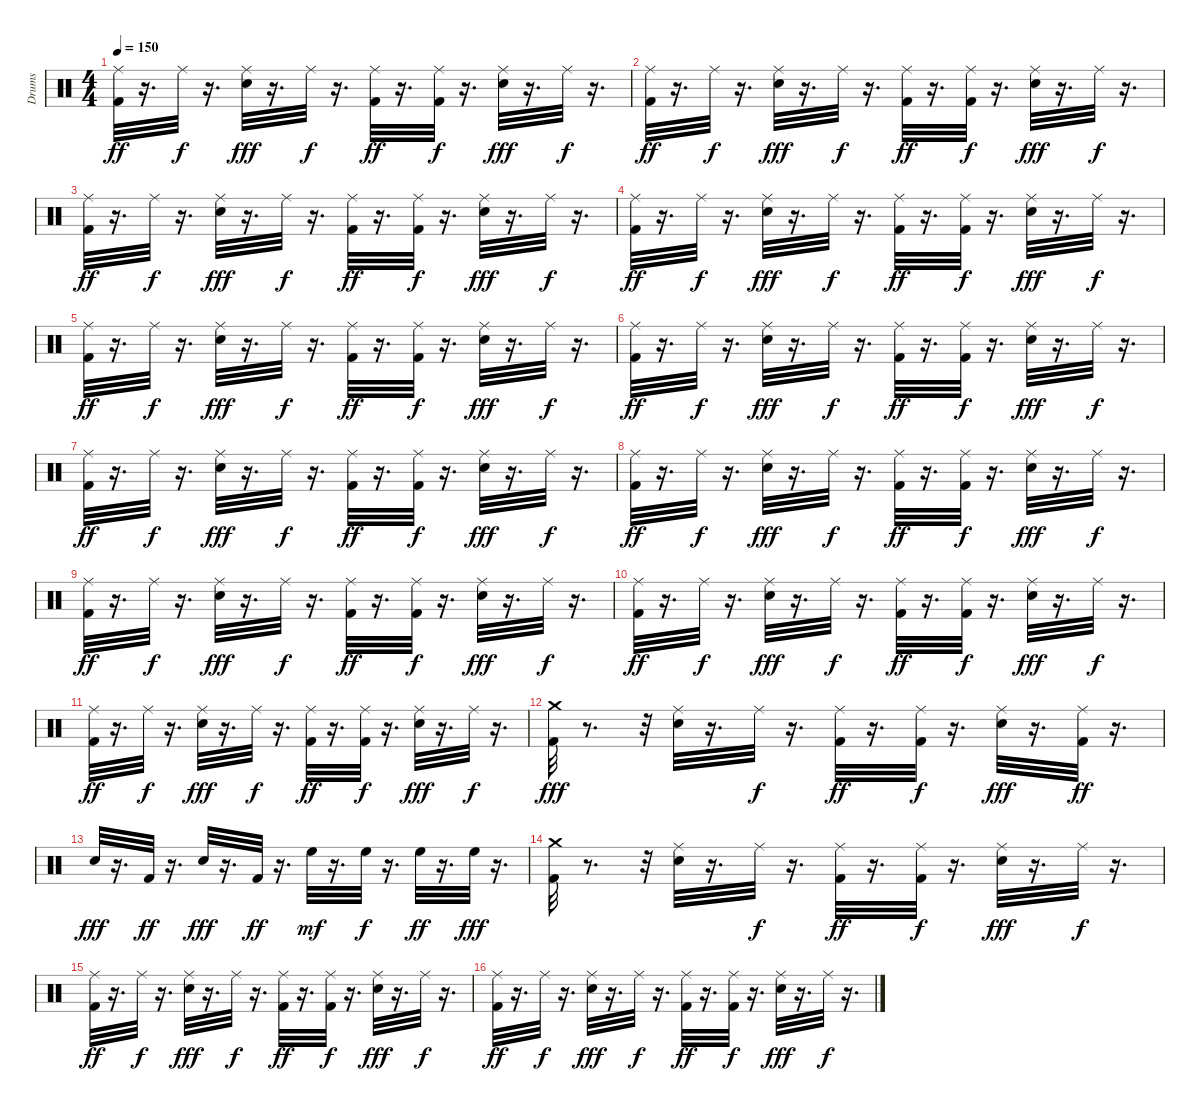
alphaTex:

\track ("Drums" "Drums") {instrument percussion}
\staff {score}
\articulation defaults
\ts (4 4)
\tempo 150
\clef neutral
\ks c
("Kick (hit) 2" "Ride (middle)").32{dy ff} r.16{d} "Ride (middle)".32{dy f} r.16{d} ("Snare (hit) 2" "Ride (middle)").32{dy fff} r.16{d} "Ride (middle)".32{dy f} r.16{d} ("Kick (hit) 2" "Ride (middle)").32{dy ff} r.16{d} ("Kick (hit) 2" "Ride (middle)").32{dy f} r.16{d} ("Snare (hit) 2" "Ride (middle)").32{dy fff} r.16{d} "Ride (middle)".32{dy f} r.16{d} |
("Kick (hit) 2" "Ride (middle)").32{dy ff} r.16{d} "Ride (middle)".32{dy f} r.16{d} ("Snare (hit) 2" "Ride (middle)").32{dy fff} r.16{d} "Ride (middle)".32{dy f} r.16{d} ("Kick (hit) 2" "Ride (middle)").32{dy ff} r.16{d} ("Kick (hit) 2" "Ride (middle)").32{dy f} r.16{d} ("Snare (hit) 2" "Ride (middle)").32{dy fff} r.16{d} "Ride (middle)".32{dy f} r.16{d} |
("Kick (hit) 2" "Ride (middle)").32{dy ff} r.16{d} "Ride (middle)".32{dy f} r.16{d} ("Snare (hit) 2" "Ride (middle)").32{dy fff} r.16{d} "Ride (middle)".32{dy f} r.16{d} ("Kick (hit) 2" "Ride (middle)").32{dy ff} r.16{d} ("Kick (hit) 2" "Ride (middle)").32{dy f} r.16{d} ("Snare (hit) 2" "Ride (middle)").32{dy fff} r.16{d} "Ride (middle)".32{dy f} r.16{d} |
("Kick (hit) 2" "Ride (middle)").32{dy ff} r.16{d} "Ride (middle)".32{dy f} r.16{d} ("Snare (hit) 2" "Ride (middle)").32{dy fff} r.16{d} "Ride (middle)".32{dy f} r.16{d} ("Kick (hit) 2" "Ride (middle)").32{dy ff} r.16{d} ("Kick (hit) 2" "Ride (middle)").32{dy f} r.16{d} ("Snare (hit) 2" "Ride (middle)").32{dy fff} r.16{d} "Ride (middle)".32{dy f} r.16{d} |
("Kick (hit) 2" "Ride (middle)").32{dy ff} r.16{d} "Ride (middle)".32{dy f} r.16{d} ("Snare (hit) 2" "Ride (middle)").32{dy fff} r.16{d} "Ride (middle)".32{dy f} r.16{d} ("Kick (hit) 2" "Ride (middle)").32{dy ff} r.16{d} ("Kick (hit) 2" "Ride (middle)").32{dy f} r.16{d} ("Snare (hit) 2" "Ride (middle)").32{dy fff} r.16{d} "Ride (middle)".32{dy f} r.16{d} |
("Kick (hit) 2" "Ride (middle)").32{dy ff} r.16{d} "Ride (middle)".32{dy f} r.16{d} ("Snare (hit) 2" "Ride (middle)").32{dy fff} r.16{d} "Ride (middle)".32{dy f} r.16{d} ("Kick (hit) 2" "Ride (middle)").32{dy ff} r.16{d} ("Kick (hit) 2" "Ride (middle)").32{dy f} r.16{d} ("Snare (hit) 2" "Ride (middle)").32{dy fff} r.16{d} "Ride (middle)".32{dy f} r.16{d} |
("Kick (hit) 2" "Ride (middle)").32{dy ff} r.16{d} "Ride (middle)".32{dy f} r.16{d} ("Snare (hit) 2" "Ride (middle)").32{dy fff} r.16{d} "Ride (middle)".32{dy f} r.16{d} ("Kick (hit) 2" "Ride (middle)").32{dy ff} r.16{d} ("Kick (hit) 2" "Ride (middle)").32{dy f} r.16{d} ("Snare (hit) 2" "Ride (middle)").32{dy fff} r.16{d} "Ride (middle)".32{dy f} r.16{d} |
("Kick (hit) 2" "Ride (middle)").32{dy ff} r.16{d} "Ride (middle)".32{dy f} r.16{d} ("Snare (hit) 2" "Ride (middle)").32{dy fff} r.16{d} "Ride (middle)".32{dy f} r.16{d} ("Kick (hit) 2" "Ride (middle)").32{dy ff} r.16{d} ("Kick (hit) 2" "Ride (middle)").32{dy f} r.16{d} ("Snare (hit) 2" "Ride (middle)").32{dy fff} r.16{d} "Ride (middle)".32{dy f} r.16{d} |
("Kick (hit) 2" "Ride (middle)").32{dy ff} r.16{d} "Ride (middle)".32{dy f} r.16{d} ("Snare (hit) 2" "Ride (middle)").32{dy fff} r.16{d} "Ride (middle)".32{dy f} r.16{d} ("Kick (hit) 2" "Ride (middle)").32{dy ff} r.16{d} ("Kick (hit) 2" "Ride (middle)").32{dy f} r.16{d} ("Snare (hit) 2" "Ride (middle)").32{dy fff} r.16{d} "Ride (middle)".32{dy f} r.16{d} |
("Kick (hit) 2" "Ride (middle)").32{dy ff} r.16{d} "Ride (middle)".32{dy f} r.16{d} ("Snare (hit) 2" "Ride (middle)").32{dy fff} r.16{d} "Ride (middle)".32{dy f} r.16{d} ("Kick (hit) 2" "Ride (middle)").32{dy ff} r.16{d} ("Kick (hit) 2" "Ride (middle)").32{dy f} r.16{d} ("Snare (hit) 2" "Ride (middle)").32{dy fff} r.16{d} "Ride (middle)".32{dy f} r.16{d} |
("Kick (hit) 2" "Ride (middle)").32{dy ff} r.16{d} "Ride (middle)".32{dy f} r.16{d} ("Snare (hit) 2" "Ride (middle)").32{dy fff} r.16{d} "Ride (middle)".32{dy f} r.16{d} ("Kick (hit) 2" "Ride (middle)").32{dy ff} r.16{d} ("Kick (hit) 2" "Ride (middle)").32{dy f} r.16{d} ("Snare (hit) 2" "Ride (middle)").32{dy fff} r.16{d} "Ride (middle)".32{dy f} r.16{d} |
("Kick (hit) 2" "Crash medium (hit)").32{dy fff} r.8{d} r.32 ("Snare (hit) 2" "Ride (middle)").32 r.16{d} "Ride (middle)".32{dy f} r.16{d} ("Kick (hit) 2" "Ride (middle)").32{dy ff} r.16{d} ("Kick (hit) 2" "Ride (middle)").32{dy f} r.16{d} ("Snare (hit) 2" "Ride (middle)").32{dy fff} r.16{d} ("Kick (hit) 2" "Ride (middle)").32{dy ff} r.16{d} |
"Snare (hit) 2".32{dy fff} r.16{d} "Kick (hit) 2".32{dy ff} r.16{d} "Snare (hit) 2".32{dy fff} r.16{d} "Kick (hit) 2".32{dy ff} r.16{d} "High Floor Tom (hit)".32{dy mf} r.16{d} "High Floor Tom (hit)".32{dy f} r.16{d} "High Floor Tom (hit)".32{dy ff} r.16{d} "High Floor Tom (hit)".32{dy fff} r.16{d} |
("Kick (hit) 2" "Crash medium (hit)").32 r.8{d} r.32 ("Snare (hit) 2" "Ride (middle)").32 r.16{d} "Ride (middle)".32{dy f} r.16{d} ("Kick (hit) 2" "Ride (middle)").32{dy ff} r.16{d} ("Kick (hit) 2" "Ride (middle)").32{dy f} r.16{d} ("Snare (hit) 2" "Ride (middle)").32{dy fff} r.16{d} "Ride (middle)".32{dy f} r.16{d} |
("Kick (hit) 2" "Ride (middle)").32{dy ff} r.16{d} "Ride (middle)".32{dy f} r.16{d} ("Snare (hit) 2" "Ride (middle)").32{dy fff} r.16{d} "Ride (middle)".32{dy f} r.16{d} ("Kick (hit) 2" "Ride (middle)").32{dy ff} r.16{d} ("Kick (hit) 2" "Ride (middle)").32{dy f} r.16{d} ("Snare (hit) 2" "Ride (middle)").32{dy fff} r.16{d} "Ride (middle)".32{dy f} r.16{d} |
("Kick (hit) 2" "Ride (middle)").32{dy ff} r.16{d} "Ride (middle)".32{dy f} r.16{d} ("Snare (hit) 2" "Ride (middle)").32{dy fff} r.16{d} "Ride (middle)".32{dy f} r.16{d} ("Kick (hit) 2" "Ride (middle)").32{dy ff} r.16{d} ("Kick (hit) 2" "Ride (middle)").32{dy f} r.16{d} ("Snare (hit) 2" "Ride (middle)").32{dy fff} r.16{d} "Ride (middle)".32{dy f} r.16{d}
